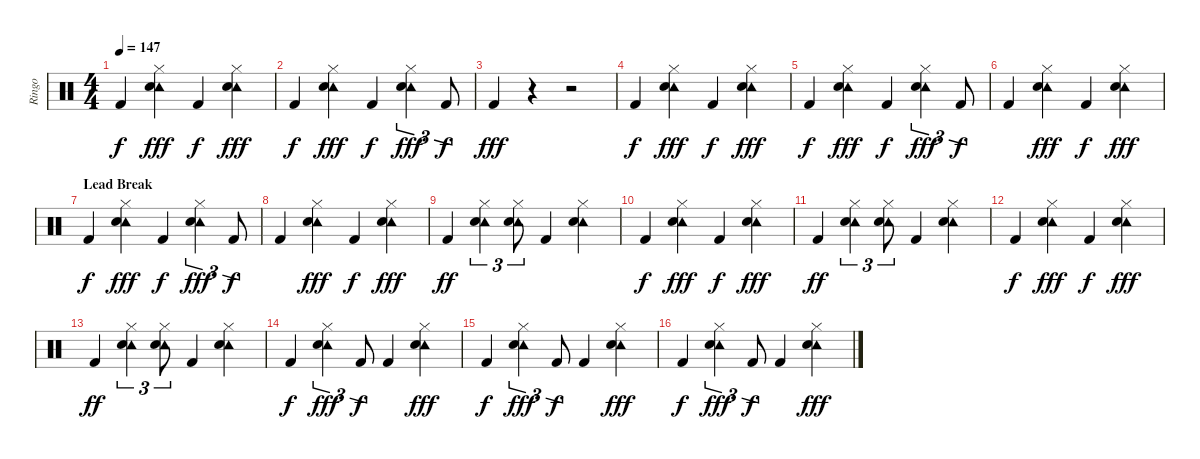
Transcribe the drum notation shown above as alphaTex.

\track ("Ringo" "Ringo") {instrument percussion}
\staff {score}
\articulation defaults
\ts (4 4)
\tempo 147
\clef neutral
\ks c "Kick (hit) 2".4{dy f}
("Tambourine (hit)" "Hi-Hat (closed)" "Snare (hit) 2").4{dy fff} "Kick (hit) 2".4{dy f} ("Tambourine (hit)" "Hi-Hat (closed)" "Snare (hit) 2").4{dy fff} |
"Kick (hit) 2".4{dy f} ("Tambourine (hit)" "Hi-Hat (closed)" "Snare (hit) 2").4{dy fff} "Kick (hit) 2".4{dy f} ("Tambourine (hit)" "Hi-Hat (closed)" "Snare (hit) 2").4{tu (3 2) dy fff} "Kick (hit) 2".8{tu (3 2) dy f} |
"Kick (hit) 2".4{dy fff} r.4 r.2 |
"Kick (hit) 2".4{dy f} ("Tambourine (hit)" "Hi-Hat (closed)" "Snare (hit) 2").4{dy fff} "Kick (hit) 2".4{dy f} ("Tambourine (hit)" "Hi-Hat (closed)" "Snare (hit) 2").4{dy fff} |
"Kick (hit) 2".4{dy f} ("Tambourine (hit)" "Hi-Hat (closed)" "Snare (hit) 2").4{dy fff} "Kick (hit) 2".4{dy f} ("Tambourine (hit)" "Hi-Hat (closed)" "Snare (hit) 2").4{tu (3 2) dy fff} "Kick (hit) 2".8{tu (3 2) dy f} |
"Kick (hit) 2".4 ("Tambourine (hit)" "Hi-Hat (closed)" "Snare (hit) 2").4{dy fff} "Kick (hit) 2".4{dy f} ("Tambourine (hit)" "Hi-Hat (closed)" "Snare (hit) 2").4{dy fff} |
\section ("" "Lead Break")
"Kick (hit) 2".4{dy f} ("Tambourine (hit)" "Hi-Hat (closed)" "Snare (hit) 2").4{dy fff} "Kick (hit) 2".4{dy f} ("Tambourine (hit)" "Hi-Hat (closed)" "Snare (hit) 2").4{tu (3 2) dy fff} "Kick (hit) 2".8{tu (3 2) dy f} |
"Kick (hit) 2".4 ("Tambourine (hit)" "Hi-Hat (closed)" "Snare (hit) 2").4{dy fff} "Kick (hit) 2".4{dy f} ("Tambourine (hit)" "Hi-Hat (closed)" "Snare (hit) 2").4{dy fff} |
"Kick (hit) 2".4{dy ff} ("Tambourine (hit)" "Hi-Hat (closed)" "Snare (hit) 2").4{tu (3 2)} ("Tambourine (hit)" "Hi-Hat (closed)" "Snare (hit) 2").8{tu (3 2)} "Kick (hit) 2".4 ("Tambourine (hit)" "Hi-Hat (closed)" "Snare (hit) 2").4 |
"Kick (hit) 2".4{dy f} ("Tambourine (hit)" "Hi-Hat (closed)" "Snare (hit) 2").4{dy fff} "Kick (hit) 2".4{dy f} ("Tambourine (hit)" "Hi-Hat (closed)" "Snare (hit) 2").4{dy fff} |
"Kick (hit) 2".4{dy ff} ("Tambourine (hit)" "Hi-Hat (closed)" "Snare (hit) 2").4{tu (3 2)} ("Tambourine (hit)" "Hi-Hat (closed)" "Snare (hit) 2").8{tu (3 2)} "Kick (hit) 2".4 ("Tambourine (hit)" "Hi-Hat (closed)" "Snare (hit) 2").4 |
"Kick (hit) 2".4{dy f} ("Tambourine (hit)" "Hi-Hat (closed)" "Snare (hit) 2").4{dy fff} "Kick (hit) 2".4{dy f} ("Tambourine (hit)" "Hi-Hat (closed)" "Snare (hit) 2").4{dy fff} |
"Kick (hit) 2".4{dy ff} ("Tambourine (hit)" "Hi-Hat (closed)" "Snare (hit) 2").4{tu (3 2)} ("Tambourine (hit)" "Hi-Hat (closed)" "Snare (hit) 2").8{tu (3 2)} "Kick (hit) 2".4 ("Tambourine (hit)" "Hi-Hat (closed)" "Snare (hit) 2").4 |
"Kick (hit) 2".4{dy f} ("Tambourine (hit)" "Hi-Hat (closed)" "Snare (hit) 2").4{tu (3 2) dy fff} "Kick (hit) 2".8{tu (3 2) dy f} "Kick (hit) 2".4 ("Tambourine (hit)" "Hi-Hat (closed)" "Snare (hit) 2").4{dy fff} |
"Kick (hit) 2".4{dy f} ("Tambourine (hit)" "Hi-Hat (closed)" "Snare (hit) 2").4{tu (3 2) dy fff} "Kick (hit) 2".8{tu (3 2) dy f} "Kick (hit) 2".4 ("Tambourine (hit)" "Hi-Hat (closed)" "Snare (hit) 2").4{dy fff} |
"Kick (hit) 2".4{dy f} ("Tambourine (hit)" "Hi-Hat (closed)" "Snare (hit) 2").4{tu (3 2) dy fff} "Kick (hit) 2".8{tu (3 2) dy f} "Kick (hit) 2".4 ("Tambourine (hit)" "Hi-Hat (closed)" "Snare (hit) 2").4{dy fff}
